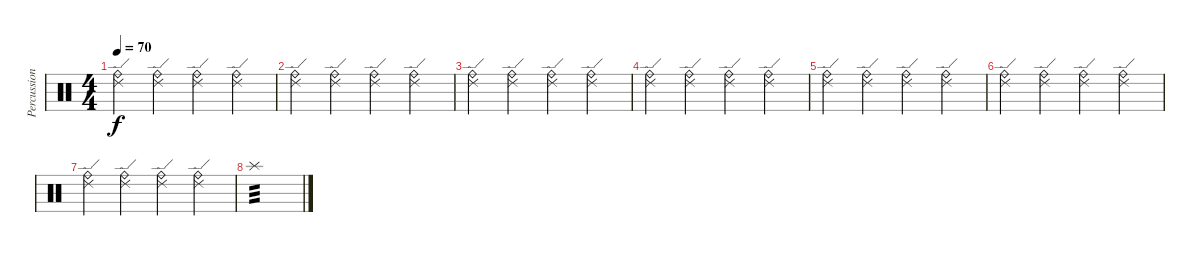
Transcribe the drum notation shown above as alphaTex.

\track ("Percussion" "Percussion") {instrument percussion}
\staff {score}
\articulation defaults
\ts (4 4)
\tempo 70
\clef neutral
\ks c
("Ride (edge) 2" "Ride (bell)").4{dy f} ("Ride (edge) 2" "Ride (bell)").4 ("Ride (edge) 2" "Ride (bell)").4 ("Ride (edge) 2" "Ride (bell)").4 |
("Ride (edge) 2" "Ride (bell)").4 ("Ride (edge) 2" "Ride (bell)").4 ("Ride (edge) 2" "Ride (bell)").4 ("Ride (edge) 2" "Ride (bell)").4 |
("Ride (edge) 2" "Ride (bell)").4 ("Ride (edge) 2" "Ride (bell)").4 ("Ride (edge) 2" "Ride (bell)").4 ("Ride (edge) 2" "Ride (bell)").4 |
("Ride (edge) 2" "Ride (bell)").4 ("Ride (edge) 2" "Ride (bell)").4 ("Ride (edge) 2" "Ride (bell)").4 ("Ride (edge) 2" "Ride (bell)").4 |
("Ride (edge) 2" "Ride (bell)").4 ("Ride (edge) 2" "Ride (bell)").4 ("Ride (edge) 2" "Ride (bell)").4 ("Ride (edge) 2" "Ride (bell)").4 |
("Ride (edge) 2" "Ride (bell)").4 ("Ride (edge) 2" "Ride (bell)").4 ("Ride (edge) 2" "Ride (bell)").4 ("Ride (edge) 2" "Ride (bell)").4 |
("Ride (edge) 2" "Ride (bell)").4 ("Ride (edge) 2" "Ride (bell)").4 ("Ride (edge) 2" "Ride (bell)").4 ("Ride (edge) 2" "Ride (bell)").4 |
"Splash (hit)".1{tp 3}
